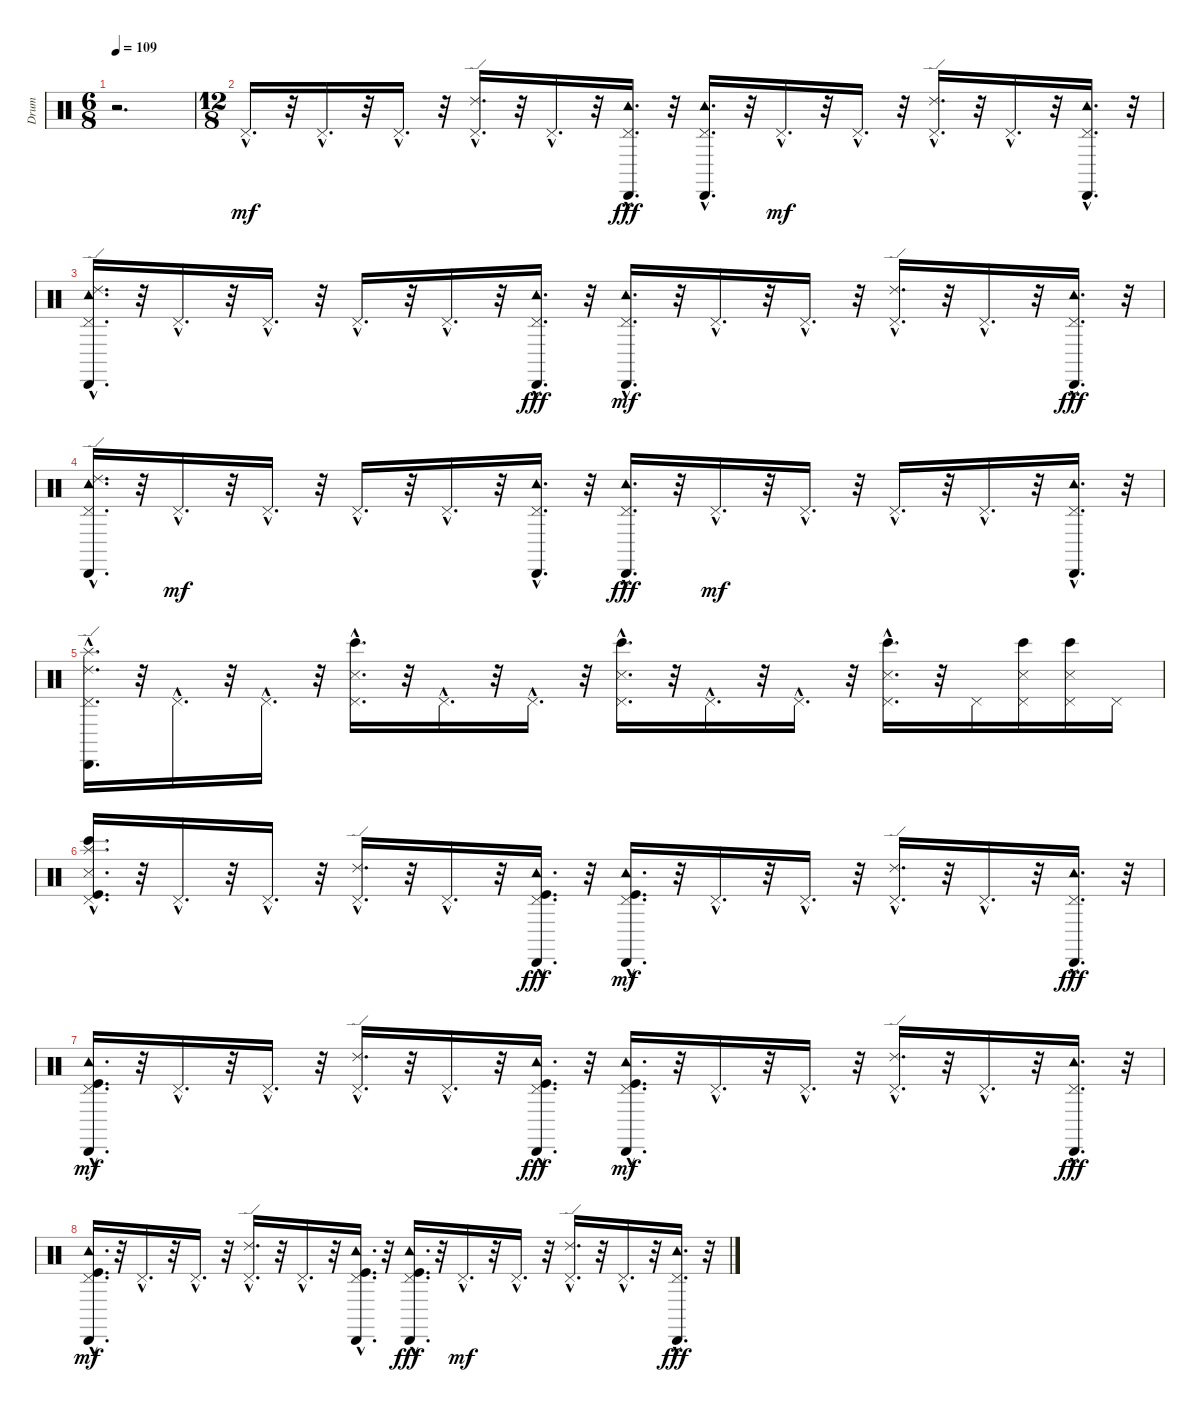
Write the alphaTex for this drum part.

\track ("Drum" "Drum") {instrument percussion}
\staff {score}
\articulation defaults
\ts (6 8)
\tempo 109
\clef neutral
\ks c
r.2{d dy mf} |
\ts (12 8)
"Pedal Hi-Hat (hit)"{hac}.16{d} r.32 "Pedal Hi-Hat (hit)"{hac}.16{d} r.32 "Pedal Hi-Hat (hit)"{hac}.16{d} r.32 ("Ride (edge) 2"{hac} "Pedal Hi-Hat (hit)"{hac}).16{d} r.32 "Pedal Hi-Hat (hit)"{hac}.16{d} r.32 ("Tambourine (hit)"{hac} "Cabasa (hit)"{hac} "Pedal Hi-Hat (hit)"{hac}).16{d dy fff} r.32 ("Tambourine (hit)"{hac} "Pedal Hi-Hat (hit)"{hac} "Cabasa (hit)"{hac}).16{d} r.32 "Pedal Hi-Hat (hit)"{hac}.16{d dy mf} r.32 "Pedal Hi-Hat (hit)"{hac}.16{d} r.32 ("Ride (edge) 2"{hac} "Pedal Hi-Hat (hit)"{hac}).16{d} r.32 "Pedal Hi-Hat (hit)"{hac}.16{d} r.32 ("Cabasa (hit)"{hac} "Pedal Hi-Hat (hit)"{hac} "Tambourine (hit)"{hac}).16{d} r.32 |
("Ride (edge) 2"{hac} "Cabasa (hit)"{hac} "Pedal Hi-Hat (hit)"{hac} "Tambourine (hit)"{hac}).16{d} r.32 "Pedal Hi-Hat (hit)"{hac}.16{d} r.32 "Pedal Hi-Hat (hit)"{hac}.16{d} r.32 "Pedal Hi-Hat (hit)"{hac}.16{d} r.32 "Pedal Hi-Hat (hit)"{hac}.16{d} r.32 ("Tambourine (hit)"{hac} "Pedal Hi-Hat (hit)"{hac} "Cabasa (hit)"{hac}).16{d dy fff} r.32 ("Cabasa (hit)"{hac} "Pedal Hi-Hat (hit)"{hac} "Tambourine (hit)"{hac}).16{d dy mf} r.32 "Pedal Hi-Hat (hit)"{hac}.16{d} r.32 "Pedal Hi-Hat (hit)"{hac}.16{d} r.32 ("Pedal Hi-Hat (hit)"{hac} "Ride (edge) 2"{hac}).16{d} r.32 "Pedal Hi-Hat (hit)"{hac}.16{d} r.32 ("Tambourine (hit)"{hac} "Pedal Hi-Hat (hit)"{hac} "Cabasa (hit)"{hac}).16{d dy fff} r.32 |
("Tambourine (hit)"{hac} "Pedal Hi-Hat (hit)"{hac} "Cabasa (hit)"{hac} "Ride (edge) 2"{hac}).16{d} r.32 "Pedal Hi-Hat (hit)"{hac}.16{d dy mf} r.32 "Pedal Hi-Hat (hit)"{hac}.16{d} r.32 "Pedal Hi-Hat (hit)"{hac}.16{d} r.32 "Pedal Hi-Hat (hit)"{hac}.16{d} r.32 ("Cabasa (hit)"{hac} "Pedal Hi-Hat (hit)"{hac} "Tambourine (hit)"{hac}).16{d} r.32 ("Tambourine (hit)"{hac} "Pedal Hi-Hat (hit)"{hac} "Cabasa (hit)"{hac}).16{d dy fff} r.32 "Pedal Hi-Hat (hit)"{hac}.16{d dy mf} r.32 "Pedal Hi-Hat (hit)"{hac}.16{d} r.32 "Pedal Hi-Hat (hit)"{hac}.16{d} r.32 "Pedal Hi-Hat (hit)"{hac}.16{d} r.32 ("Cabasa (hit)"{hac} "Pedal Hi-Hat (hit)"{hac} "Tambourine (hit)"{hac}).16{d} r.32 |
("Cabasa (hit)"{hac} "Ride (edge) 2"{hac} "Splash (hit)"{hac} "Pedal Hi-Hat (hit)"{hac}).16{d} r.32 "Pedal Hi-Hat (hit)"{hac}.16{d} r.32 "Pedal Hi-Hat (hit)"{hac}.16{d} r.32 ("Pedal Hi-Hat (hit)"{hac} "Snare (side stick) 3"{hac} "Bongo High (hit)"{hac}).16{d} r.32 "Pedal Hi-Hat (hit)"{hac}.16{d} r.32 "Pedal Hi-Hat (hit)"{hac}.16{d} r.32 ("Snare (side stick) 3"{hac} "Bongo High (hit)"{hac} "Pedal Hi-Hat (hit)"{hac}).16{d} r.32 "Pedal Hi-Hat (hit)"{hac}.16{d} r.32 "Pedal Hi-Hat (hit)"{hac}.16{d} r.32 ("Snare (side stick) 3"{hac} "Bongo High (hit)"{hac} "Pedal Hi-Hat (hit)"{hac}).16{d} r.32 "Pedal Hi-Hat (hit)".16 ("Pedal Hi-Hat (hit)" "Snare (side stick) 3" "Bongo High (hit)").16 ("Snare (side stick) 3" "Bongo High (hit)" "Pedal Hi-Hat (hit)").16 "Pedal Hi-Hat (hit)".16 |
("Kick (hit)"{hac} "Splash (hit)"{hac} "Bongo High (hit)"{hac} "Snare (side stick) 3"{hac} "Pedal Hi-Hat (hit)"{hac}).16{d} r.32 "Pedal Hi-Hat (hit)"{hac}.16{d} r.32 "Pedal Hi-Hat (hit)"{hac}.16{d} r.32 ("Pedal Hi-Hat (hit)"{hac} "Ride (edge) 2"{hac}).16{d} r.32 "Pedal Hi-Hat (hit)"{hac}.16{d} r.32 ("Kick (hit)"{hac} "Pedal Hi-Hat (hit)"{hac} "Tambourine (hit)"{hac} "Cabasa (hit)"{hac}).16{d dy fff} r.32 ("Kick (hit)"{hac} "Pedal Hi-Hat (hit)"{hac} "Cabasa (hit)"{hac} "Tambourine (hit)"{hac}).16{d dy mf} r.32 "Pedal Hi-Hat (hit)"{hac}.16{d} r.32 "Pedal Hi-Hat (hit)"{hac}.16{d} r.32 ("Ride (edge) 2"{hac} "Pedal Hi-Hat (hit)"{hac}).16{d} r.32 "Pedal Hi-Hat (hit)"{hac}.16{d} r.32 ("Tambourine (hit)"{hac} "Cabasa (hit)"{hac} "Pedal Hi-Hat (hit)"{hac}).16{d dy fff} r.32 |
("Tambourine (hit)"{hac} "Pedal Hi-Hat (hit)"{hac} "Cabasa (hit)"{hac} "Kick (hit)"{hac}).16{d dy mf} r.32 "Pedal Hi-Hat (hit)"{hac}.16{d} r.32 "Pedal Hi-Hat (hit)"{hac}.16{d} r.32 ("Pedal Hi-Hat (hit)"{hac} "Ride (edge) 2"{hac}).16{d} r.32 "Pedal Hi-Hat (hit)"{hac}.16{d} r.32 ("Tambourine (hit)"{hac} "Cabasa (hit)"{hac} "Kick (hit)"{hac} "Pedal Hi-Hat (hit)"{hac}).16{d dy fff} r.32 ("Pedal Hi-Hat (hit)"{hac} "Kick (hit)"{hac} "Cabasa (hit)"{hac} "Tambourine (hit)"{hac}).16{d dy mf} r.32 "Pedal Hi-Hat (hit)"{hac}.16{d} r.32 "Pedal Hi-Hat (hit)"{hac}.16{d} r.32 ("Ride (edge) 2"{hac} "Pedal Hi-Hat (hit)"{hac}).16{d} r.32 "Pedal Hi-Hat (hit)"{hac}.16{d} r.32 ("Tambourine (hit)"{hac} "Pedal Hi-Hat (hit)"{hac} "Cabasa (hit)"{hac}).16{d dy fff} r.32 |
("Kick (hit)"{hac} "Pedal Hi-Hat (hit)"{hac} "Cabasa (hit)"{hac} "Tambourine (hit)"{hac}).16{d dy mf} r.32 "Pedal Hi-Hat (hit)"{hac}.16{d} r.32 "Pedal Hi-Hat (hit)"{hac}.16{d} r.32 ("Pedal Hi-Hat (hit)"{hac} "Ride (edge) 2"{hac}).16{d} r.32 "Pedal Hi-Hat (hit)"{hac}.16{d} r.32 ("Cabasa (hit)"{hac} "Pedal Hi-Hat (hit)"{hac} "Tambourine (hit)"{hac} "Kick (hit)"{hac}).16{d} r.32 ("Kick (hit)"{hac} "Tambourine (hit)"{hac} "Pedal Hi-Hat (hit)"{hac} "Cabasa (hit)"{hac}).16{d dy fff} r.32 "Pedal Hi-Hat (hit)"{hac}.16{d dy mf} r.32 "Pedal Hi-Hat (hit)"{hac}.16{d} r.32 ("Pedal Hi-Hat (hit)"{hac} "Ride (edge) 2"{hac}).16{d} r.32 "Pedal Hi-Hat (hit)"{hac}.16{d} r.32 ("Pedal Hi-Hat (hit)"{hac} "Tambourine (hit)"{hac} "Cabasa (hit)"{hac}).16{d dy fff} r.32
